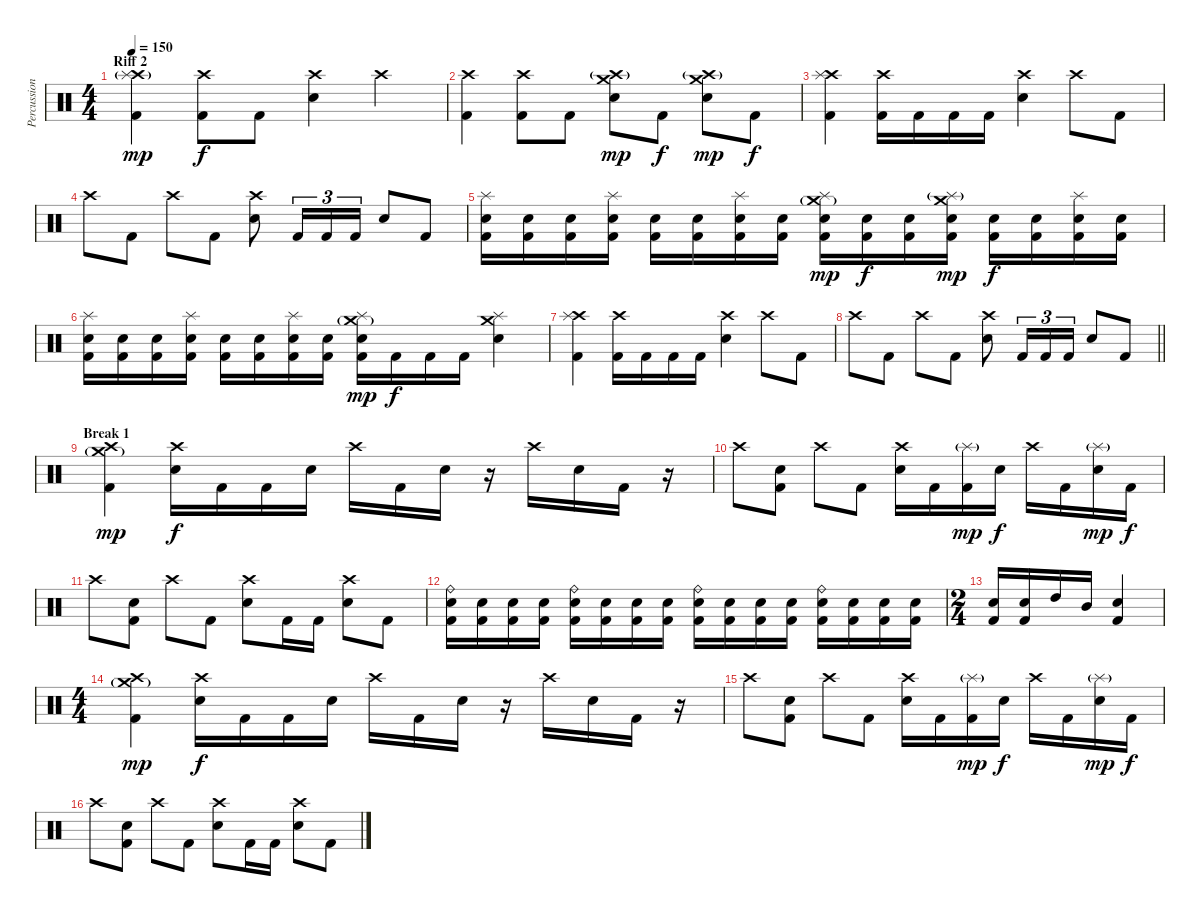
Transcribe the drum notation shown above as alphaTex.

\track ("Percussion" "Percussion") {instrument percussion}
\staff {score}
\articulation defaults
\ts (4 4)
\section ("" "Riff 2")
\tempo 150
\clef neutral
\ks c
("Crash high (hit)" "Splash (hit)"{g} "Kick (hit) 2").4{dy mp} ("Crash high (hit)" "Kick (hit) 2").8{dy f} "Kick (hit) 2".8 ("Crash high (hit)" "Snare (hit) 2").4 "Crash high (hit)".4 |
("Crash high (hit)" "Kick (hit) 2").4 ("Crash high (hit)" "Kick (hit) 2").8 "Kick (hit) 2".8 ("Crash high (hit)"{g} "Crash medium (hit)" "Snare (hit) 2").8{dy mp} "Kick (hit) 2".8{dy f} ("Crash high (hit)"{g} "Crash medium (hit)" "Snare (hit) 2").8{dy mp} "Kick (hit) 2".8{dy f} |
("Crash high (hit)" "Splash (hit)" "Kick (hit) 2").4 ("Crash high (hit)" "Kick (hit) 2").16 "Kick (hit) 2".16 "Kick (hit) 2".16 "Kick (hit) 2".16 ("Crash high (hit)" "Snare (hit) 2").4 "Crash high (hit)".8 "Kick (hit) 2".8 |
"Crash high (hit)".8 "Kick (hit) 2".8 "Crash high (hit)".8 "Kick (hit) 2".8 ("Crash high (hit)" "Snare (hit) 2").8 "Kick (hit) 2".16{tu (3 2)} "Kick (hit) 2".16{tu (3 2)} "Kick (hit) 2".16{tu (3 2)} "Snare (hit) 2".8 "Kick (hit) 2".8 |
("Splash (hit)" "Snare (hit) 2" "Kick (hit) 2").16 ("Snare (hit) 2" "Kick (hit) 2").16 ("Snare (hit) 2" "Kick (hit) 2").16 ("Splash (hit)" "Snare (hit) 2" "Kick (hit) 2").16 ("Snare (hit) 2" "Kick (hit) 2").16 ("Snare (hit) 2" "Kick (hit) 2").16 ("Splash (hit)" "Snare (hit) 2" "Kick (hit) 2").16 ("Snare (hit) 2" "Kick (hit) 2").16 ("Splash (hit)" "Crash medium (hit)"{g} "Snare (hit) 2" "Kick (hit) 2").16{dy mp} ("Snare (hit) 2" "Kick (hit) 2").16{dy f} ("Snare (hit) 2" "Kick (hit) 2").16 ("Splash (hit)"{g} "Crash medium (hit)" "Snare (hit) 2" "Kick (hit) 2").16{dy mp} ("Snare (hit) 2" "Kick (hit) 2").16{dy f} ("Snare (hit) 2" "Kick (hit) 2").16 ("Splash (hit)" "Snare (hit) 2" "Kick (hit) 2").16 ("Snare (hit) 2" "Kick (hit) 2").16 |
("Splash (hit)" "Snare (hit) 2" "Kick (hit) 2").16 ("Snare (hit) 2" "Kick (hit) 2").16 ("Snare (hit) 2" "Kick (hit) 2").16 ("Splash (hit)" "Snare (hit) 2" "Kick (hit) 2").16 ("Snare (hit) 2" "Kick (hit) 2").16 ("Snare (hit) 2" "Kick (hit) 2").16 ("Splash (hit)" "Snare (hit) 2" "Kick (hit) 2").16 ("Snare (hit) 2" "Kick (hit) 2").16 ("Splash (hit)" "Crash medium (hit)"{g} "Snare (hit) 2" "Kick (hit) 2").16{dy mp} "Kick (hit) 2".16{dy f} "Kick (hit) 2".16 "Kick (hit) 2".16 ("Crash medium (hit)" "Splash (hit)" "Snare (hit) 2").4 |
("Crash high (hit)" "Splash (hit)" "Kick (hit) 2").4 ("Crash high (hit)" "Kick (hit) 2").16 "Kick (hit) 2".16 "Kick (hit) 2".16 "Kick (hit) 2".16 ("Crash high (hit)" "Snare (hit) 2").4 "Crash high (hit)".8 "Kick (hit) 2".8 |
\barLineRight lightlight "Crash high (hit)".8 "Kick (hit) 2".8 "Crash high (hit)".8 "Kick (hit) 2".8
("Crash high (hit)" "Snare (hit) 2").8 "Kick (hit) 2".16{tu (3 2)} "Kick (hit) 2".16{tu (3 2)} "Kick (hit) 2".16{tu (3 2)} "Snare (hit) 2".8 "Kick (hit) 2".8 |
\section ("" "Break 1")
("Crash high (hit)" "Crash medium (hit)"{g} "Kick (hit) 2").4{dy mp} ("Crash high (hit)" "Snare (hit) 2").16{dy f} "Kick (hit) 2".16 "Kick (hit) 2".16 "Snare (hit) 2".16 "Crash high (hit)".16 "Kick (hit) 2".16 "Snare (hit) 2".16 r.16 "Crash high (hit)".16 "Snare (hit) 2".16 "Kick (hit) 2".16 r.16 |
"Crash high (hit)".8 ("Snare (hit) 2" "Kick (hit) 2").8 "Crash high (hit)".8 "Kick (hit) 2".8 ("Crash high (hit)" "Snare (hit) 2").16 "Kick (hit) 2".16 ("Splash (hit)"{g} "Kick (hit) 2").16{dy mp} "Snare (hit) 2".16{dy f} "Crash high (hit)".16 "Kick (hit) 2".16 ("Splash (hit)"{g} "Snare (hit) 2").16{dy mp} "Kick (hit) 2".16{dy f} |
"Crash high (hit)".8 ("Snare (hit) 2" "Kick (hit) 2").8 "Crash high (hit)".8 "Kick (hit) 2".8 ("Crash high (hit)" "Snare (hit) 2").8 "Kick (hit) 2".16 "Kick (hit) 2".16 ("Crash high (hit)" "Snare (hit) 2").8 "Kick (hit) 2".8 |
("Ride (bell)" "Snare (hit) 2" "Kick (hit) 2").16 ("Snare (hit) 2" "Kick (hit) 2").16 ("Snare (hit) 2" "Kick (hit) 2").16 ("Snare (hit) 2" "Kick (hit) 2").16 ("Ride (bell)" "Snare (hit) 2" "Kick (hit) 2").16 ("Snare (hit) 2" "Kick (hit) 2").16 ("Snare (hit) 2" "Kick (hit) 2").16 ("Snare (hit) 2" "Kick (hit) 2").16 ("Ride (bell)" "Snare (hit) 2" "Kick (hit) 2").16 ("Snare (hit) 2" "Kick (hit) 2").16 ("Snare (hit) 2" "Kick (hit) 2").16 ("Snare (hit) 2" "Kick (hit) 2").16 ("Ride (bell)" "Snare (hit) 2" "Kick (hit) 2").16 ("Snare (hit) 2" "Kick (hit) 2").16 ("Snare (hit) 2" "Kick (hit) 2").16 ("Snare (hit) 2" "Kick (hit) 2").16 |
\ts (2 4)
("Snare (hit) 2" "Kick (hit) 2").16 ("Snare (hit) 2" "Kick (hit) 2").16 "High Tom (hit)".16 "Mid Tom (hit)".16 ("Snare (hit) 2" "Kick (hit) 2").4 |
\ts (4 4)
("Crash high (hit)" "Crash medium (hit)"{g} "Kick (hit) 2").4{dy mp} ("Crash high (hit)" "Snare (hit) 2").16{dy f} "Kick (hit) 2".16 "Kick (hit) 2".16 "Snare (hit) 2".16 "Crash high (hit)".16 "Kick (hit) 2".16 "Snare (hit) 2".16 r.16 "Crash high (hit)".16 "Snare (hit) 2".16 "Kick (hit) 2".16 r.16 |
"Crash high (hit)".8 ("Snare (hit) 2" "Kick (hit) 2").8 "Crash high (hit)".8 "Kick (hit) 2".8 ("Crash high (hit)" "Snare (hit) 2").16 "Kick (hit) 2".16 ("Splash (hit)"{g} "Kick (hit) 2").16{dy mp} "Snare (hit) 2".16{dy f} "Crash high (hit)".16 "Kick (hit) 2".16 ("Splash (hit)"{g} "Snare (hit) 2").16{dy mp} "Kick (hit) 2".16{dy f} |
"Crash high (hit)".8 ("Snare (hit) 2" "Kick (hit) 2").8 "Crash high (hit)".8 "Kick (hit) 2".8 ("Crash high (hit)" "Snare (hit) 2").8 "Kick (hit) 2".16 "Kick (hit) 2".16 ("Crash high (hit)" "Snare (hit) 2").8 "Kick (hit) 2".8
